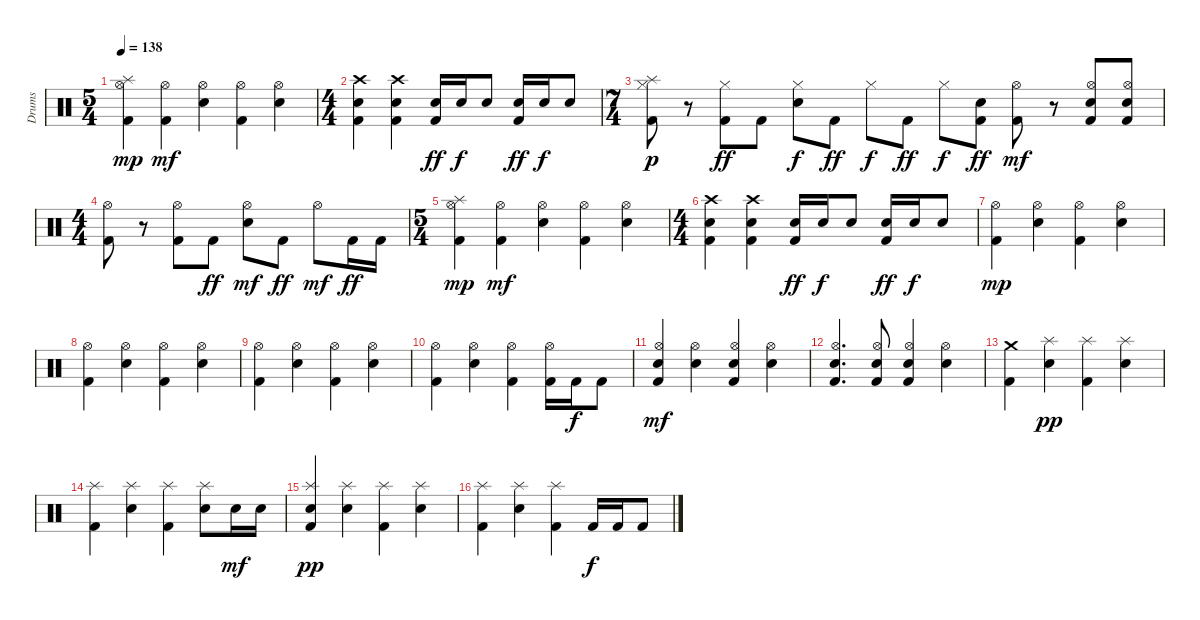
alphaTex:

\track ("Drums" "Drums") {instrument percussion}
\staff {score}
\articulation defaults
\ts (5 4)
\tempo 138
\clef neutral
\ks c
("Kick (hit) 2" "Hi-Hat (open)" "Splash (hit)").4{dy mp} ("Kick (hit) 2" "Hi-Hat (open)").4{dy mf} ("Electric Snare (hit)" "Hi-Hat (open)").4 ("Kick (hit) 2" "Hi-Hat (open)").4 ("Electric Snare (hit)" "Hi-Hat (open)").4 |
\ts (4 4)
("Kick (hit) 2" "Electric Snare (hit)" "Crash high (hit)").4 ("Kick (hit) 2" "Electric Snare (hit)" "Crash high (hit)").4 ("Kick (hit) 2" "Snare (hit) 2").16{dy ff} "Snare (hit) 2".16{dy f} "Snare (hit) 2".8 ("Kick (hit) 2" "Electric Snare (hit)").16{dy ff} "Electric Snare (hit)".16{dy f} "Electric Snare (hit)".8 |
\ts (7 4)
("Kick (hit) 2" "Hi-Hat (closed)" "Splash (hit)").8{dy p} r.8 ("Kick (hit) 2" "Hi-Hat (closed)").8{dy ff} "Kick (hit) 2".8 ("Electric Snare (hit)" "Hi-Hat (closed)").8{dy f} "Kick (hit) 2".8{dy ff} "Hi-Hat (closed)".8{dy f} "Kick (hit) 2".8{dy ff} "Hi-Hat (closed)".8{dy f} ("Kick (hit) 2" "Electric Snare (hit)").8{dy ff} ("Kick (hit) 2" "Hi-Hat (open)").8{dy mf} r.8 ("Kick (hit) 2" "Electric Snare (hit)" "Hi-Hat (open)").8 ("Kick (hit) 2" "Electric Snare (hit)" "Hi-Hat (open)").8 |
\ts (4 4)
("Kick (hit) 2" "Hi-Hat (open)").8 r.8 ("Kick (hit) 2" "Hi-Hat (open)").8 "Kick (hit) 2".8{dy ff} ("Electric Snare (hit)" "Hi-Hat (open)").8{dy mf} "Kick (hit) 2".8{dy ff} "Hi-Hat (open)".8{dy mf} "Kick (hit) 2".16{dy ff} "Kick (hit) 2".16 |
\ts (5 4)
("Kick (hit) 2" "Hi-Hat (open)" "Splash (hit)").4{dy mp} ("Kick (hit) 2" "Hi-Hat (open)").4{dy mf} ("Electric Snare (hit)" "Hi-Hat (open)").4 ("Kick (hit) 2" "Hi-Hat (open)").4 ("Electric Snare (hit)" "Hi-Hat (open)").4 |
\ts (4 4)
("Kick (hit) 2" "Electric Snare (hit)" "Crash high (hit)").4 ("Kick (hit) 2" "Electric Snare (hit)" "Crash high (hit)").4 ("Kick (hit) 2" "Snare (hit) 2").16{dy ff} "Snare (hit) 2".16{dy f} "Snare (hit) 2".8 ("Kick (hit) 2" "Electric Snare (hit)").16{dy ff} "Electric Snare (hit)".16{dy f} "Electric Snare (hit)".8 |
("Kick (hit) 2" "Hi-Hat (open)").4{dy mp} ("Electric Snare (hit)" "Hi-Hat (open)").4 ("Kick (hit) 2" "Hi-Hat (open)").4 ("Electric Snare (hit)" "Hi-Hat (open)").4 |
("Kick (hit) 2" "Hi-Hat (open)").4 ("Electric Snare (hit)" "Hi-Hat (open)").4 ("Kick (hit) 2" "Hi-Hat (open)").4 ("Electric Snare (hit)" "Hi-Hat (open)").4 |
("Kick (hit) 2" "Hi-Hat (open)").4 ("Electric Snare (hit)" "Hi-Hat (open)").4 ("Kick (hit) 2" "Hi-Hat (open)").4 ("Electric Snare (hit)" "Hi-Hat (open)").4 |
("Kick (hit) 2" "Hi-Hat (open)").4 ("Electric Snare (hit)" "Hi-Hat (open)").4 ("Kick (hit) 2" "Hi-Hat (open)").4 ("Kick (hit) 2" "Hi-Hat (open)").16 "Kick (hit) 2".16{dy f} "Kick (hit) 2".8 |
("Kick (hit) 2" "Electric Snare (hit)" "Hi-Hat (open)").4{dy mf} ("Electric Snare (hit)" "Hi-Hat (open)").4 ("Kick (hit) 2" "Electric Snare (hit)" "Hi-Hat (open)").4 ("Electric Snare (hit)" "Hi-Hat (open)").4 |
("Kick (hit) 2" "Electric Snare (hit)" "Hi-Hat (open)").4{d} ("Kick (hit) 2" "Electric Snare (hit)" "Hi-Hat (open)").8 ("Kick (hit) 2" "Electric Snare (hit)" "Hi-Hat (open)").4 ("Electric Snare (hit)" "Hi-Hat (open)").4 |
("Kick (hit) 2" "Crash medium (hit)").4 ("Electric Snare (hit)" "Splash (hit)").4{dy pp} ("Kick (hit) 2" "Splash (hit)").4 ("Electric Snare (hit)" "Splash (hit)").4 |
("Kick (hit) 2" "Splash (hit)").4 ("Electric Snare (hit)" "Splash (hit)").4 ("Kick (hit) 2" "Splash (hit)").4 ("Electric Snare (hit)" "Splash (hit)").8 "Electric Snare (hit)".16{dy mf} "Electric Snare (hit)".16 |
("Kick (hit) 2" "Electric Snare (hit)" "Splash (hit)").4{dy pp} ("Electric Snare (hit)" "Splash (hit)").4 ("Kick (hit) 2" "Splash (hit)").4 ("Electric Snare (hit)" "Splash (hit)").4 |
("Kick (hit) 2" "Splash (hit)").4 ("Electric Snare (hit)" "Splash (hit)").4 ("Kick (hit) 2" "Splash (hit)").4 "Kick (hit) 2".16{dy f} "Kick (hit) 2".16 "Kick (hit) 2".8
